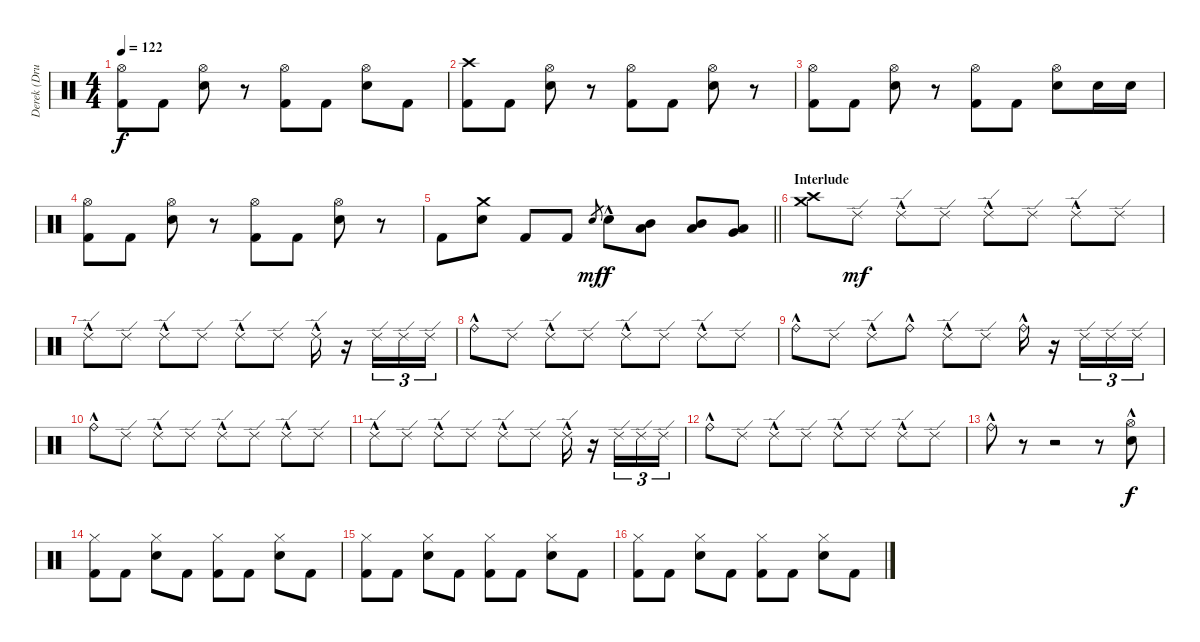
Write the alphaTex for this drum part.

\track ("Derek (Drums)" "Derek (Dru") {instrument percussion}
\staff {score}
\articulation defaults
\ts (4 4)
\tempo 122
\clef neutral
\ks c
("Hi-Hat (open)" "Kick (hit) 2").8{dy f} "Kick (hit) 2".8 ("Hi-Hat (open)" "Electric Snare (hit)").8 r.8 ("Hi-Hat (open)" "Kick (hit) 2").8 "Kick (hit) 2".8 ("Hi-Hat (open)" "Electric Snare (hit)").8 "Kick (hit) 2".8 |
("Crash high (hit)" "Kick (hit) 2").8 "Kick (hit) 2".8 ("Hi-Hat (open)" "Electric Snare (hit)").8 r.8 ("Hi-Hat (open)" "Kick (hit) 2").8 "Kick (hit) 2".8 ("Hi-Hat (open)" "Electric Snare (hit)").8 r.8 |
("Hi-Hat (open)" "Kick (hit) 2").8 "Kick (hit) 2".8 ("Hi-Hat (open)" "Electric Snare (hit)").8 r.8 ("Hi-Hat (open)" "Kick (hit) 2").8 "Kick (hit) 2".8 ("Hi-Hat (open)" "Electric Snare (hit)").8 "Electric Snare (hit)".16 "Electric Snare (hit)".16 |
("Hi-Hat (open)" "Kick (hit) 2").8 "Kick (hit) 2".8 ("Hi-Hat (open)" "Electric Snare (hit)").8 r.8 ("Hi-Hat (open)" "Kick (hit) 2").8 "Kick (hit) 2".8 ("Hi-Hat (open)" "Electric Snare (hit)").8 r.8 |
\barLineRight lightlight "Kick (hit) 2".8
("Crash medium (hit)" "Electric Snare (hit)").8 "Kick (hit) 2".8 "Kick (hit) 2".8 "Electric Snare (hit)".8{gr dy mf} "Electric Snare (hit)"{hac}.8{dy f} ("Low Tom (hit)" "Mid Tom (hit)").8 ("Low Tom (hit)" "Mid Tom (hit)").8 ("Very Low Tom (hit)" "Low Tom (hit)").8 |
\section ("" "Interlude")
("Crash high (hit)" "Crash medium (hit)").8 "Ride (edge) 2".8{dy mf} "Ride (edge) 2"{hac}.8 "Ride (edge) 2".8 "Ride (edge) 2"{hac}.8 "Ride (edge) 2".8 "Ride (edge) 2"{hac}.8 "Ride (edge) 2".8 |
"Ride (edge) 2"{hac}.8 "Ride (edge) 2".8 "Ride (edge) 2"{hac}.8 "Ride (edge) 2".8 "Ride (edge) 2"{hac}.8 "Ride (edge) 2".8 "Ride (edge) 2"{hac}.16 r.16 "Ride (edge) 2".16{tu (3 2)} "Ride (edge) 2".16{tu (3 2)} "Ride (edge) 2".16{tu (3 2)} |
"Ride (bell)"{hac}.8 "Ride (edge) 2".8 "Ride (edge) 2"{hac}.8 "Ride (edge) 2".8 "Ride (edge) 2"{hac}.8 "Ride (edge) 2".8 "Ride (edge) 2"{hac}.8 "Ride (edge) 2".8 |
"Ride (bell)"{hac}.8 "Ride (edge) 2".8 "Ride (edge) 2"{hac}.8 "Ride (bell)"{hac}.8 "Ride (edge) 2"{hac}.8 "Ride (edge) 2".8 "Ride (bell)"{hac}.16 r.16 "Ride (edge) 2".16{tu (3 2)} "Ride (edge) 2".16{tu (3 2)} "Ride (edge) 2".16{tu (3 2)} |
"Ride (bell)"{hac}.8 "Ride (edge) 2".8 "Ride (edge) 2"{hac}.8 "Ride (edge) 2".8 "Ride (edge) 2"{hac}.8 "Ride (edge) 2".8 "Ride (edge) 2"{hac}.8 "Ride (edge) 2".8 |
"Ride (edge) 2"{hac}.8 "Ride (edge) 2".8 "Ride (edge) 2"{hac}.8 "Ride (edge) 2".8 "Ride (edge) 2"{hac}.8 "Ride (edge) 2".8 "Ride (edge) 2"{hac}.16 r.16 "Ride (edge) 2".16{tu (3 2)} "Ride (edge) 2".16{tu (3 2)} "Ride (edge) 2".16{tu (3 2)} |
"Ride (bell)"{hac}.8 "Ride (edge) 2".8 "Ride (edge) 2"{hac}.8 "Ride (edge) 2".8 "Ride (edge) 2"{hac}.8 "Ride (edge) 2".8 "Ride (edge) 2"{hac}.8 "Ride (edge) 2".8 |
"Ride (bell)"{hac}.8 r.8 r.2 r.8 ("Hi-Hat (open)" "Electric Snare (hit)"{hac}).8{dy f} |
("Hi-Hat (closed)" "Kick (hit) 2").8 "Kick (hit) 2".8 ("Hi-Hat (closed)" "Electric Snare (hit)").8 "Kick (hit) 2".8 ("Hi-Hat (closed)" "Kick (hit) 2").8 "Kick (hit) 2".8 ("Hi-Hat (closed)" "Electric Snare (hit)").8 "Kick (hit) 2".8 |
("Hi-Hat (closed)" "Kick (hit) 2").8 "Kick (hit) 2".8 ("Hi-Hat (closed)" "Electric Snare (hit)").8 "Kick (hit) 2".8 ("Hi-Hat (closed)" "Kick (hit) 2").8 "Kick (hit) 2".8 ("Hi-Hat (closed)" "Electric Snare (hit)").8 "Kick (hit) 2".8 |
("Hi-Hat (closed)" "Kick (hit) 2").8 "Kick (hit) 2".8 ("Hi-Hat (closed)" "Electric Snare (hit)").8 "Kick (hit) 2".8 ("Hi-Hat (closed)" "Kick (hit) 2").8 "Kick (hit) 2".8 ("Hi-Hat (closed)" "Electric Snare (hit)").8 "Kick (hit) 2".8
